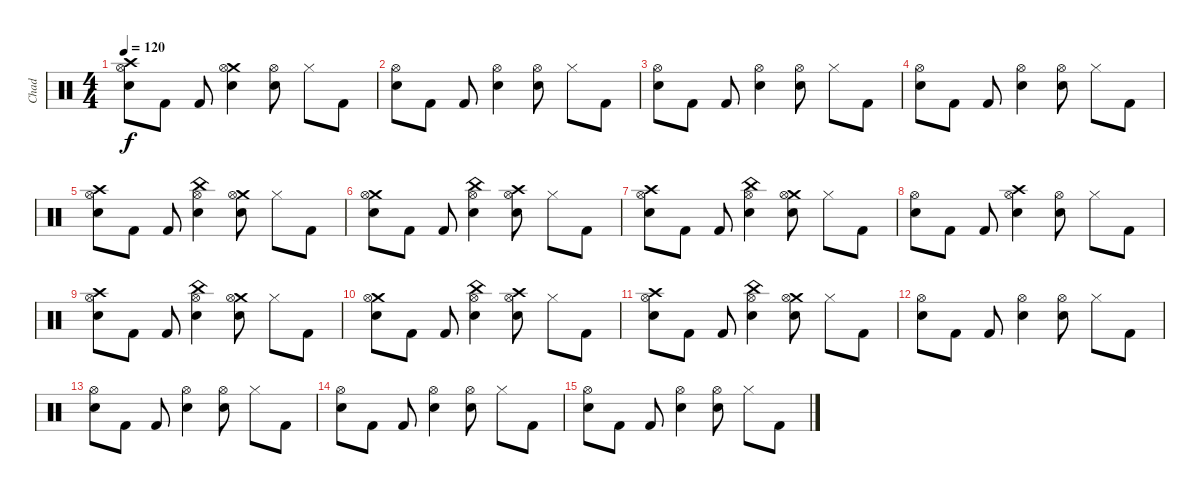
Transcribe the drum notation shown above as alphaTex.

\track ("Chad" "Chad") {instrument percussion}
\staff {score}
\articulation defaults
\ts (4 4)
\tempo 120
\clef neutral
\ks c
("Crash high (hit)" "Hi-Hat (open)" "Electric Snare (hit)").8{dy f} "Kick (hit) 2".8 "Kick (hit) 2".8 ("Crash medium (hit)" "Hi-Hat (open)" "Electric Snare (hit)").4 ("Hi-Hat (open)" "Electric Snare (hit)").8 "Hi-Hat (closed)".8 "Kick (hit) 2".8 |
("Hi-Hat (open)" "Electric Snare (hit)").8 "Kick (hit) 2".8 "Kick (hit) 2".8 ("Hi-Hat (open)" "Electric Snare (hit)").4 ("Hi-Hat (open)" "Electric Snare (hit)").8 "Hi-Hat (closed)".8 "Kick (hit) 2".8 |
("Hi-Hat (open)" "Electric Snare (hit)").8 "Kick (hit) 2".8 "Kick (hit) 2".8 ("Hi-Hat (open)" "Electric Snare (hit)").4 ("Hi-Hat (open)" "Electric Snare (hit)").8 "Hi-Hat (closed)".8 "Kick (hit) 2".8 |
("Hi-Hat (open)" "Electric Snare (hit)").8 "Kick (hit) 2".8 "Kick (hit) 2".8 ("Hi-Hat (open)" "Electric Snare (hit)").4 ("Hi-Hat (open)" "Electric Snare (hit)").8 "Hi-Hat (closed)".8 "Kick (hit) 2".8 |
("Crash high (hit)" "Hi-Hat (open)" "Electric Snare (hit)").8 "Kick (hit) 2".8 "Kick (hit) 2".8 ("China (hit)" "Hi-Hat (open)" "Electric Snare (hit)").4 ("Crash medium (hit)" "Hi-Hat (open)" "Electric Snare (hit)").8 "Hi-Hat (closed)".8 "Kick (hit) 2".8 |
("Crash medium (hit)" "Hi-Hat (open)" "Electric Snare (hit)").8 "Kick (hit) 2".8 "Kick (hit) 2".8 ("China (hit)" "Hi-Hat (open)" "Electric Snare (hit)").4 ("Crash high (hit)" "Hi-Hat (open)" "Electric Snare (hit)").8 "Hi-Hat (closed)".8 "Kick (hit) 2".8 |
("Crash high (hit)" "Hi-Hat (open)" "Electric Snare (hit)").8 "Kick (hit) 2".8 "Kick (hit) 2".8 ("China (hit)" "Hi-Hat (open)" "Electric Snare (hit)").4 ("Crash medium (hit)" "Hi-Hat (open)" "Electric Snare (hit)").8 "Hi-Hat (closed)".8 "Kick (hit) 2".8 |
("Hi-Hat (open)" "Electric Snare (hit)").8 "Kick (hit) 2".8 "Kick (hit) 2".8 ("Crash high (hit)" "Hi-Hat (open)" "Electric Snare (hit)").4 ("Hi-Hat (open)" "Electric Snare (hit)").8 "Hi-Hat (closed)".8 "Kick (hit) 2".8 |
("Crash high (hit)" "Hi-Hat (open)" "Electric Snare (hit)").8 "Kick (hit) 2".8 "Kick (hit) 2".8 ("China (hit)" "Hi-Hat (open)" "Electric Snare (hit)").4 ("Crash medium (hit)" "Hi-Hat (open)" "Electric Snare (hit)").8 "Hi-Hat (closed)".8 "Kick (hit) 2".8 |
("Crash medium (hit)" "Hi-Hat (open)" "Electric Snare (hit)").8 "Kick (hit) 2".8 "Kick (hit) 2".8 ("China (hit)" "Hi-Hat (open)" "Electric Snare (hit)").4 ("Crash high (hit)" "Hi-Hat (open)" "Electric Snare (hit)").8 "Hi-Hat (closed)".8 "Kick (hit) 2".8 |
("Crash high (hit)" "Hi-Hat (open)" "Electric Snare (hit)").8 "Kick (hit) 2".8 "Kick (hit) 2".8 ("China (hit)" "Hi-Hat (open)" "Electric Snare (hit)").4 ("Crash medium (hit)" "Hi-Hat (open)" "Electric Snare (hit)").8 "Hi-Hat (closed)".8 "Kick (hit) 2".8 |
("Hi-Hat (open)" "Electric Snare (hit)").8 "Kick (hit) 2".8 "Kick (hit) 2".8 ("Hi-Hat (open)" "Electric Snare (hit)").4 ("Hi-Hat (open)" "Electric Snare (hit)").8 "Hi-Hat (closed)".8 "Kick (hit) 2".8 |
("Hi-Hat (open)" "Electric Snare (hit)").8 "Kick (hit) 2".8 "Kick (hit) 2".8 ("Hi-Hat (open)" "Electric Snare (hit)").4 ("Hi-Hat (open)" "Electric Snare (hit)").8 "Hi-Hat (closed)".8 "Kick (hit) 2".8 |
("Hi-Hat (open)" "Electric Snare (hit)").8 "Kick (hit) 2".8 "Kick (hit) 2".8 ("Hi-Hat (open)" "Electric Snare (hit)").4 ("Hi-Hat (open)" "Electric Snare (hit)").8 "Hi-Hat (closed)".8 "Kick (hit) 2".8 |
("Hi-Hat (open)" "Electric Snare (hit)").8 "Kick (hit) 2".8 "Kick (hit) 2".8 ("Hi-Hat (open)" "Electric Snare (hit)").4 ("Hi-Hat (open)" "Electric Snare (hit)").8 "Hi-Hat (closed)".8 "Kick (hit) 2".8
